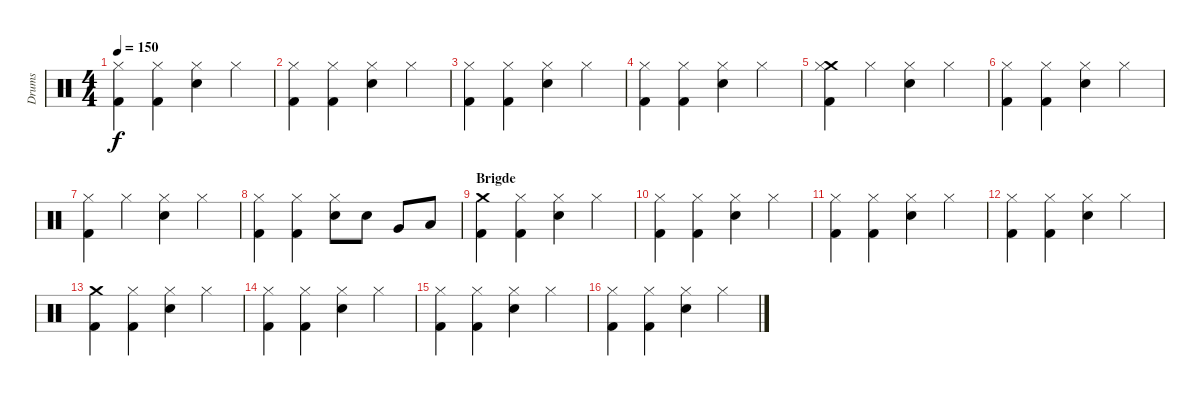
\track ("Drums" "Drums") {instrument percussion}
\staff {score}
\articulation defaults
\ts (4 4)
\tempo 150
\clef neutral
\ks c
("Kick (hit) 2" "Hi-Hat (closed)").4{dy f} ("Hi-Hat (closed)" "Kick (hit) 2").4 ("Hi-Hat (closed)" "Snare (hit) 2").4 "Hi-Hat (closed)".4 |
("Kick (hit) 2" "Hi-Hat (closed)").4 ("Hi-Hat (closed)" "Kick (hit) 2").4 ("Hi-Hat (closed)" "Snare (hit) 2").4 "Hi-Hat (closed)".4 |
("Kick (hit) 2" "Hi-Hat (closed)").4 ("Hi-Hat (closed)" "Kick (hit) 2").4 ("Hi-Hat (closed)" "Snare (hit) 2").4 "Hi-Hat (closed)".4 |
("Kick (hit) 2" "Hi-Hat (closed)").4 ("Hi-Hat (closed)" "Kick (hit) 2").4 ("Hi-Hat (closed)" "Snare (hit) 2").4 "Hi-Hat (closed)".4 |
("Kick (hit) 2" "Crash medium (hit)" "Hi-Hat (closed)").4 "Hi-Hat (closed)".4 ("Hi-Hat (closed)" "Snare (hit) 2").4 "Hi-Hat (closed)".4 |
("Kick (hit) 2" "Hi-Hat (closed)").4 ("Hi-Hat (closed)" "Kick (hit) 2").4 ("Hi-Hat (closed)" "Snare (hit) 2").4 "Hi-Hat (closed)".4 |
("Kick (hit) 2" "Hi-Hat (closed)").4 "Hi-Hat (closed)".4 ("Hi-Hat (closed)" "Snare (hit) 2").4 "Hi-Hat (closed)".4 |
("Kick (hit) 2" "Hi-Hat (closed)").4 ("Hi-Hat (closed)" "Kick (hit) 2").4 ("Hi-Hat (closed)" "Snare (hit) 2").8 "Snare (hit) 2".8 "Very Low Tom (hit)".8 "Low Floor Tom (hit)".8 |
\section ("" "Brigde")
("Kick (hit) 2" "Crash medium (hit)").4 ("Hi-Hat (closed)" "Kick (hit) 2").4 ("Hi-Hat (closed)" "Snare (hit) 2").4 "Hi-Hat (closed)".4 |
("Kick (hit) 2" "Hi-Hat (closed)").4 ("Hi-Hat (closed)" "Kick (hit) 2").4 ("Hi-Hat (closed)" "Snare (hit) 2").4 "Hi-Hat (closed)".4 |
("Kick (hit) 2" "Hi-Hat (closed)").4 ("Hi-Hat (closed)" "Kick (hit) 2").4 ("Hi-Hat (closed)" "Snare (hit) 2").4 "Hi-Hat (closed)".4 |
("Kick (hit) 2" "Hi-Hat (closed)").4 ("Hi-Hat (closed)" "Kick (hit) 2").4 ("Hi-Hat (closed)" "Snare (hit) 2").4 "Hi-Hat (closed)".4 |
("Kick (hit) 2" "Crash medium (hit)").4 ("Hi-Hat (closed)" "Kick (hit) 2").4 ("Hi-Hat (closed)" "Snare (hit) 2").4 "Hi-Hat (closed)".4 |
("Kick (hit) 2" "Hi-Hat (closed)").4 ("Hi-Hat (closed)" "Kick (hit) 2").4 ("Hi-Hat (closed)" "Snare (hit) 2").4 "Hi-Hat (closed)".4 |
("Kick (hit) 2" "Hi-Hat (closed)").4 ("Hi-Hat (closed)" "Kick (hit) 2").4 ("Hi-Hat (closed)" "Snare (hit) 2").4 "Hi-Hat (closed)".4 |
("Kick (hit) 2" "Hi-Hat (closed)").4 ("Hi-Hat (closed)" "Kick (hit) 2").4 ("Hi-Hat (closed)" "Snare (hit) 2").4 "Hi-Hat (closed)".4
